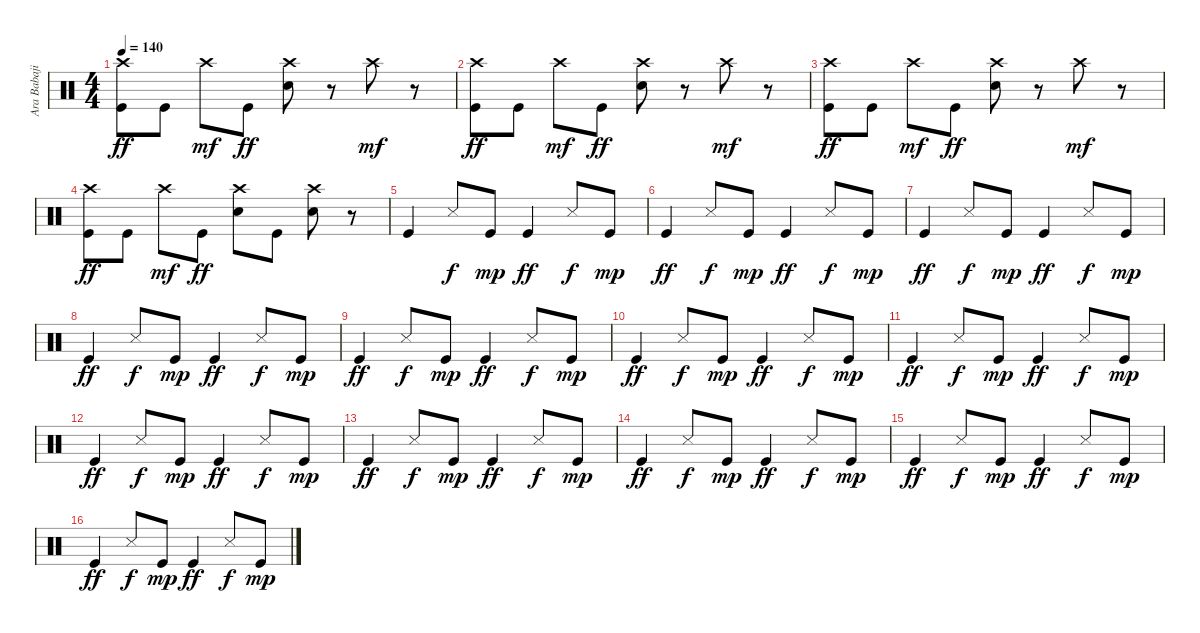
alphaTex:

\track ("Ara Babajian Drums" "Ara Babaji") {instrument percussion}
\staff {score}
\articulation defaults
\ts (4 4)
\tempo 140
\clef neutral
\ks c
("Crash high (hit)" "Kick (hit)").8{dy ff} "Kick (hit)".8 "Crash high (hit)".8{dy mf} "Kick (hit)".8{dy ff} ("Crash high (hit)" "Snare (hit) 2").8 r.8 "Crash high (hit)".8{dy mf} r.8 |
("Crash high (hit)" "Kick (hit)").8{dy ff} "Kick (hit)".8 "Crash high (hit)".8{dy mf} "Kick (hit)".8{dy ff} ("Crash high (hit)" "Snare (hit) 2").8 r.8 "Crash high (hit)".8{dy mf} r.8 |
("Crash high (hit)" "Kick (hit)").8{dy ff} "Kick (hit)".8 "Crash high (hit)".8{dy mf} "Kick (hit)".8{dy ff} ("Crash high (hit)" "Snare (hit) 2").8 r.8 "Crash high (hit)".8{dy mf} r.8 |
("Crash high (hit)" "Kick (hit)").8{dy ff} "Kick (hit)".8 "Crash high (hit)".8{dy mf} "Kick (hit)".8{dy ff} ("Crash high (hit)" "Snare (hit) 2").8 "Kick (hit)".8 ("Crash high (hit)" "Snare (hit) 2").8 r.8 |
"Kick (hit)".4 "Snare (side stick) 3".8{dy f} "Kick (hit)".8{dy mp} "Kick (hit)".4{dy ff} "Snare (side stick) 3".8{dy f} "Kick (hit)".8{dy mp} |
"Kick (hit)".4{dy ff} "Snare (side stick) 3".8{dy f} "Kick (hit)".8{dy mp} "Kick (hit)".4{dy ff} "Snare (side stick) 3".8{dy f} "Kick (hit)".8{dy mp} |
"Kick (hit)".4{dy ff} "Snare (side stick) 3".8{dy f} "Kick (hit)".8{dy mp} "Kick (hit)".4{dy ff} "Snare (side stick) 3".8{dy f} "Kick (hit)".8{dy mp} |
"Kick (hit)".4{dy ff} "Snare (side stick) 3".8{dy f} "Kick (hit)".8{dy mp} "Kick (hit)".4{dy ff} "Snare (side stick) 3".8{dy f} "Kick (hit)".8{dy mp} |
"Kick (hit)".4{dy ff} "Snare (side stick) 3".8{dy f} "Kick (hit)".8{dy mp} "Kick (hit)".4{dy ff} "Snare (side stick) 3".8{dy f} "Kick (hit)".8{dy mp} |
"Kick (hit)".4{dy ff} "Snare (side stick) 3".8{dy f} "Kick (hit)".8{dy mp} "Kick (hit)".4{dy ff} "Snare (side stick) 3".8{dy f} "Kick (hit)".8{dy mp} |
"Kick (hit)".4{dy ff} "Snare (side stick) 3".8{dy f} "Kick (hit)".8{dy mp} "Kick (hit)".4{dy ff} "Snare (side stick) 3".8{dy f} "Kick (hit)".8{dy mp} |
"Kick (hit)".4{dy ff} "Snare (side stick) 3".8{dy f} "Kick (hit)".8{dy mp} "Kick (hit)".4{dy ff} "Snare (side stick) 3".8{dy f} "Kick (hit)".8{dy mp} |
"Kick (hit)".4{dy ff} "Snare (side stick) 3".8{dy f} "Kick (hit)".8{dy mp} "Kick (hit)".4{dy ff} "Snare (side stick) 3".8{dy f} "Kick (hit)".8{dy mp} |
"Kick (hit)".4{dy ff} "Snare (side stick) 3".8{dy f} "Kick (hit)".8{dy mp} "Kick (hit)".4{dy ff} "Snare (side stick) 3".8{dy f} "Kick (hit)".8{dy mp} |
"Kick (hit)".4{dy ff} "Snare (side stick) 3".8{dy f} "Kick (hit)".8{dy mp} "Kick (hit)".4{dy ff} "Snare (side stick) 3".8{dy f} "Kick (hit)".8{dy mp} |
"Kick (hit)".4{dy ff} "Snare (side stick) 3".8{dy f} "Kick (hit)".8{dy mp} "Kick (hit)".4{dy ff} "Snare (side stick) 3".8{dy f} "Kick (hit)".8{dy mp}
